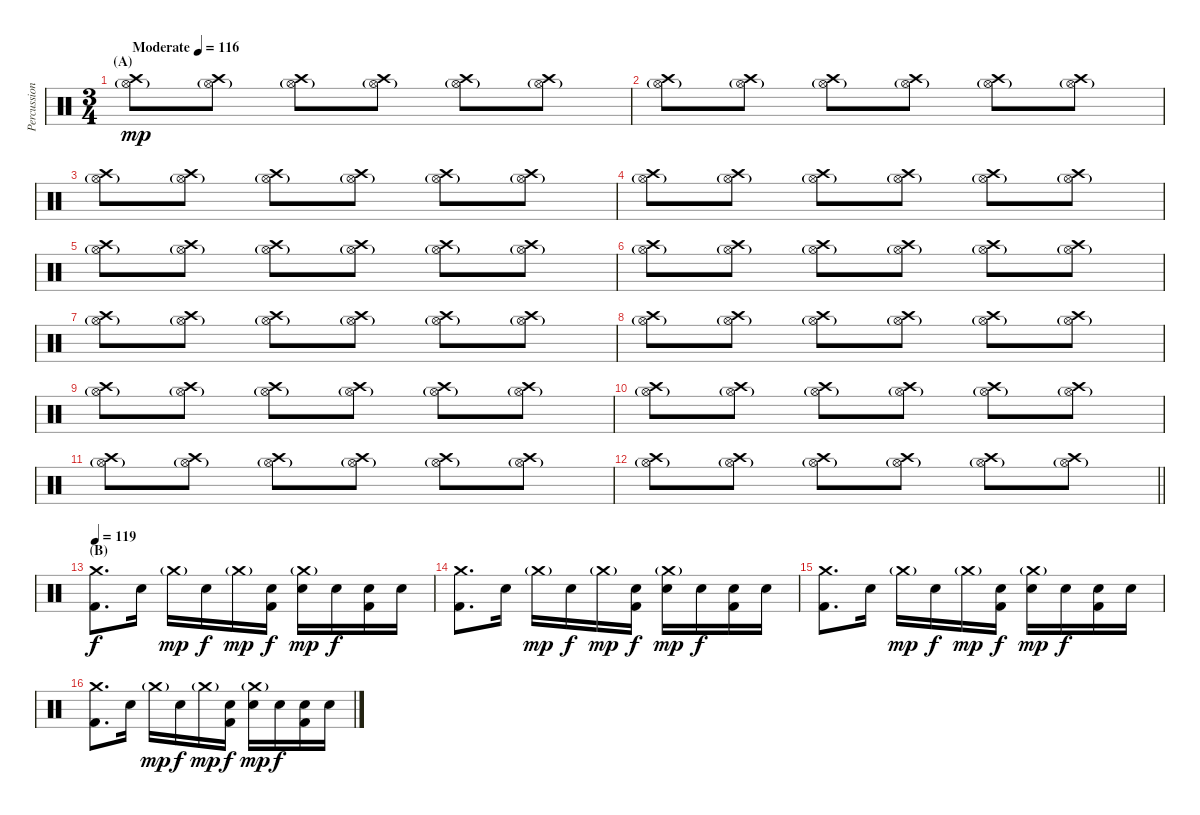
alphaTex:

\track ("Percussion 1" "Percussion") {instrument percussion}
\staff {score}
\articulation defaults
\ts (3 4)
\section ("" "(A)")
\tempo (116 "Moderate")
\clef neutral
\ks c
("Crash high (hit)" "Hi-Hat (open)"{g}).8{dy mp volume 0} ("Crash high (hit)" "Hi-Hat (open)"{g}).8 ("Crash high (hit)" "Hi-Hat (open)"{g}).8 ("Crash high (hit)" "Hi-Hat (open)"{g}).8 ("Crash high (hit)" "Hi-Hat (open)"{g}).8 ("Crash high (hit)" "Hi-Hat (open)"{g}).8 |
("Crash high (hit)" "Hi-Hat (open)"{g}).8 ("Crash high (hit)" "Hi-Hat (open)"{g}).8 ("Crash high (hit)" "Hi-Hat (open)"{g}).8 ("Crash high (hit)" "Hi-Hat (open)"{g}).8{volume 8} ("Crash high (hit)" "Hi-Hat (open)"{g}).8 ("Crash high (hit)" "Hi-Hat (open)"{g}).8 |
("Crash high (hit)" "Hi-Hat (open)"{g}).8 ("Crash high (hit)" "Hi-Hat (open)"{g}).8 ("Crash high (hit)" "Hi-Hat (open)"{g}).8 ("Crash high (hit)" "Hi-Hat (open)"{g}).8 ("Crash high (hit)" "Hi-Hat (open)"{g}).8 ("Crash high (hit)" "Hi-Hat (open)"{g}).8 |
("Crash high (hit)" "Hi-Hat (open)"{g}).8 ("Crash high (hit)" "Hi-Hat (open)"{g}).8 ("Crash high (hit)" "Hi-Hat (open)"{g}).8 ("Crash high (hit)" "Hi-Hat (open)"{g}).8 ("Crash high (hit)" "Hi-Hat (open)"{g}).8 ("Crash high (hit)" "Hi-Hat (open)"{g}).8 |
("Crash high (hit)" "Hi-Hat (open)"{g}).8 ("Crash high (hit)" "Hi-Hat (open)"{g}).8 ("Crash high (hit)" "Hi-Hat (open)"{g}).8 ("Crash high (hit)" "Hi-Hat (open)"{g}).8 ("Crash high (hit)" "Hi-Hat (open)"{g}).8 ("Crash high (hit)" "Hi-Hat (open)"{g}).8 |
("Crash high (hit)" "Hi-Hat (open)"{g}).8 ("Crash high (hit)" "Hi-Hat (open)"{g}).8 ("Crash high (hit)" "Hi-Hat (open)"{g}).8 ("Crash high (hit)" "Hi-Hat (open)"{g}).8 ("Crash high (hit)" "Hi-Hat (open)"{g}).8 ("Crash high (hit)" "Hi-Hat (open)"{g}).8 |
("Crash high (hit)" "Hi-Hat (open)"{g}).8 ("Crash high (hit)" "Hi-Hat (open)"{g}).8 ("Crash high (hit)" "Hi-Hat (open)"{g}).8 ("Crash high (hit)" "Hi-Hat (open)"{g}).8 ("Crash high (hit)" "Hi-Hat (open)"{g}).8 ("Crash high (hit)" "Hi-Hat (open)"{g}).8 |
("Crash high (hit)" "Hi-Hat (open)"{g}).8{volume 14} ("Crash high (hit)" "Hi-Hat (open)"{g}).8 ("Crash high (hit)" "Hi-Hat (open)"{g}).8 ("Crash high (hit)" "Hi-Hat (open)"{g}).8 ("Crash high (hit)" "Hi-Hat (open)"{g}).8 ("Crash high (hit)" "Hi-Hat (open)"{g}).8 |
("Crash high (hit)" "Hi-Hat (open)"{g}).8 ("Crash high (hit)" "Hi-Hat (open)"{g}).8 ("Crash high (hit)" "Hi-Hat (open)"{g}).8 ("Crash high (hit)" "Hi-Hat (open)"{g}).8 ("Crash high (hit)" "Hi-Hat (open)"{g}).8 ("Crash high (hit)" "Hi-Hat (open)"{g}).8 |
("Crash high (hit)" "Hi-Hat (open)"{g}).8 ("Crash high (hit)" "Hi-Hat (open)"{g}).8 ("Crash high (hit)" "Hi-Hat (open)"{g}).8 ("Crash high (hit)" "Hi-Hat (open)"{g}).8 ("Crash high (hit)" "Hi-Hat (open)"{g}).8 ("Crash high (hit)" "Hi-Hat (open)"{g}).8 |
("Crash high (hit)" "Hi-Hat (open)"{g}).8 ("Crash high (hit)" "Hi-Hat (open)"{g}).8 ("Crash high (hit)" "Hi-Hat (open)"{g}).8 ("Crash high (hit)" "Hi-Hat (open)"{g}).8 ("Crash high (hit)" "Hi-Hat (open)"{g}).8 ("Crash high (hit)" "Hi-Hat (open)"{g}).8 |
\barLineRight lightlight
("Crash high (hit)" "Hi-Hat (open)"{g}).8 ("Crash high (hit)" "Hi-Hat (open)"{g}).8 ("Crash high (hit)" "Hi-Hat (open)"{g}).8 ("Crash high (hit)" "Hi-Hat (open)"{g}).8 ("Crash high (hit)" "Hi-Hat (open)"{g}).8 ("Crash high (hit)" "Hi-Hat (open)"{g}).8 |
\section ("" "(B)")
\tempo 119
("Crash medium (hit)" "Kick (hit) 2").8{d dy f} "Snare (hit) 2".16 "Crash medium (hit)"{g}.16{dy mp} "Snare (hit) 2".16{dy f} "Crash medium (hit)"{g}.16{dy mp} ("Snare (hit) 2" "Kick (hit) 2").16{dy f} ("Crash medium (hit)"{g} "Snare (hit) 2").16{dy mp} "Snare (hit) 2".16{dy f} ("Snare (hit) 2" "Kick (hit) 2").16 "Snare (hit) 2".16 |
("Crash medium (hit)" "Kick (hit) 2").8{d} "Snare (hit) 2".16 "Crash medium (hit)"{g}.16{dy mp} "Snare (hit) 2".16{dy f} "Crash medium (hit)"{g}.16{dy mp} ("Snare (hit) 2" "Kick (hit) 2").16{dy f} ("Crash medium (hit)"{g} "Snare (hit) 2").16{dy mp} "Snare (hit) 2".16{dy f} ("Snare (hit) 2" "Kick (hit) 2").16 "Snare (hit) 2".16 |
("Crash medium (hit)" "Kick (hit) 2").8{d} "Snare (hit) 2".16 "Crash medium (hit)"{g}.16{dy mp} "Snare (hit) 2".16{dy f} "Crash medium (hit)"{g}.16{dy mp} ("Snare (hit) 2" "Kick (hit) 2").16{dy f} ("Crash medium (hit)"{g} "Snare (hit) 2").16{dy mp} "Snare (hit) 2".16{dy f} ("Snare (hit) 2" "Kick (hit) 2").16 "Snare (hit) 2".16 |
("Crash medium (hit)" "Kick (hit) 2").8{d} "Snare (hit) 2".16 "Crash medium (hit)"{g}.16{dy mp} "Snare (hit) 2".16{dy f} "Crash medium (hit)"{g}.16{dy mp} ("Snare (hit) 2" "Kick (hit) 2").16{dy f} ("Crash medium (hit)"{g} "Snare (hit) 2").16{dy mp} "Snare (hit) 2".16{dy f} ("Snare (hit) 2" "Kick (hit) 2").16 "Snare (hit) 2".16
